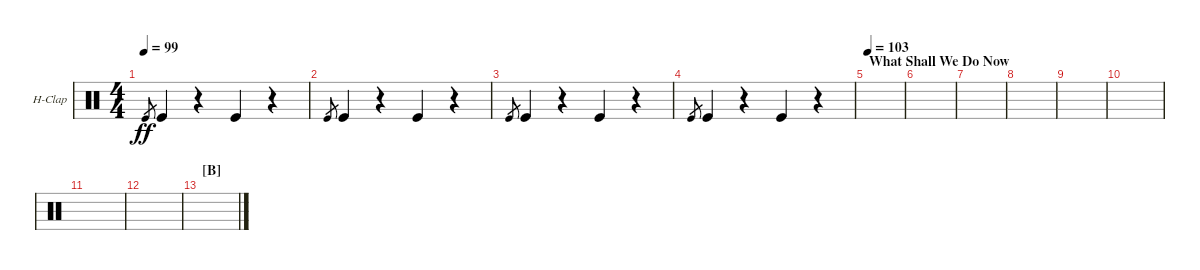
\bracketExtendMode groupsimilarinstruments
\firstSystemTrackNameOrientation horizontal
\otherSystemsTrackNameOrientation horizontal
\track ("Hand Clap" "H-Clap") {instrument percussion}
\staff {score}
\articulation defaults
\ts (4 4)
\tempo 99
\clef neutral
\ks c "Kick (hit)".8{gr dy ff} "Kick (hit)".4
r.4 "Kick (hit)".4 r.4 |
"Kick (hit)".8{gr} "Kick (hit)".4 r.4 "Kick (hit)".4 r.4 |
"Kick (hit)".8{gr} "Kick (hit)".4 r.4 "Kick (hit)".4 r.4 |
"Kick (hit)".8{gr} "Kick (hit)".4 r.4 "Kick (hit)".4 r.4 |
\section ("" "What Shall We Do Now")
\tempo 103
|
|
|
|
|
|
|
|
\section ("B" "")
